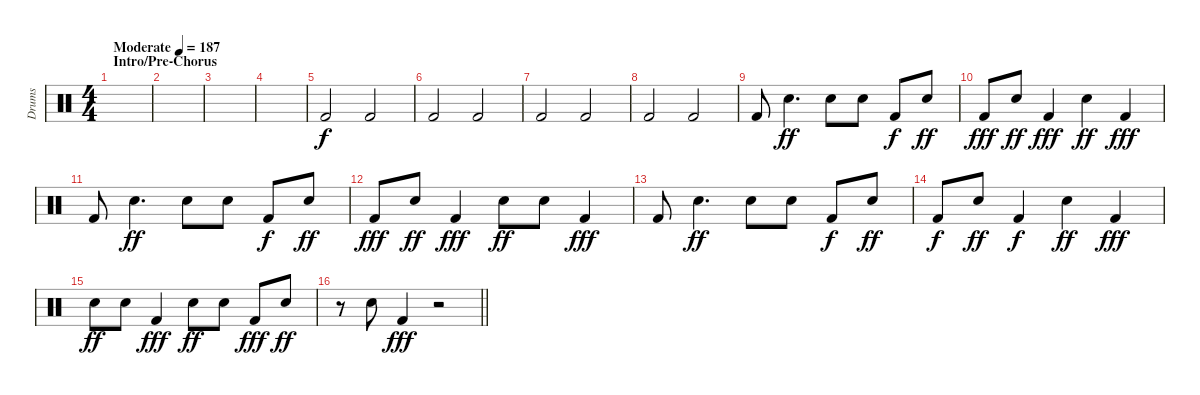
\track ("Drums" "Drums") {instrument percussion}
\staff {score}
\articulation defaults
\ts (4 4)
\section ("" "Intro/Pre-Chorus")
\tempo (187 "Moderate")
\clef neutral
\ks c
|
|
|
|
"Kick (hit) 2".2 "Kick (hit) 2".2 |
"Kick (hit) 2".2 "Kick (hit) 2".2 |
"Kick (hit) 2".2 "Kick (hit) 2".2 |
"Kick (hit) 2".2 "Kick (hit) 2".2 |
"Kick (hit) 2".8 "Snare (hit) 2".4{d dy ff} "Snare (hit) 2".8 "Snare (hit) 2".8 "Kick (hit) 2".8{dy f} "Snare (hit) 2".8{dy ff} |
"Kick (hit) 2".8{dy fff} "Snare (hit) 2".8{dy ff} "Kick (hit) 2".4{dy fff} "Snare (hit) 2".4{dy ff} "Kick (hit) 2".4{dy fff} |
"Kick (hit) 2".8 "Snare (hit) 2".4{d dy ff} "Snare (hit) 2".8 "Snare (hit) 2".8 "Kick (hit) 2".8{dy f} "Snare (hit) 2".8{dy ff} |
"Kick (hit) 2".8{dy fff} "Snare (hit) 2".8{dy ff} "Kick (hit) 2".4{dy fff} "Snare (hit) 2".8{dy ff} "Snare (hit) 2".8 "Kick (hit) 2".4{dy fff} |
"Kick (hit) 2".8 "Snare (hit) 2".4{d dy ff} "Snare (hit) 2".8 "Snare (hit) 2".8 "Kick (hit) 2".8{dy f} "Snare (hit) 2".8{dy ff} |
"Kick (hit) 2".8{dy f} "Snare (hit) 2".8{dy ff} "Kick (hit) 2".4{dy f} "Snare (hit) 2".4{dy ff} "Kick (hit) 2".4{dy fff} |
"Snare (hit) 2".8{dy ff} "Snare (hit) 2".8 "Kick (hit) 2".4{dy fff} "Snare (hit) 2".8{dy ff} "Snare (hit) 2".8 "Kick (hit) 2".8{dy fff} "Snare (hit) 2".8{dy ff} |
\barLineRight lightlight
r.8 "Snare (hit) 2".8 "Kick (hit) 2".4{dy fff} r.2
